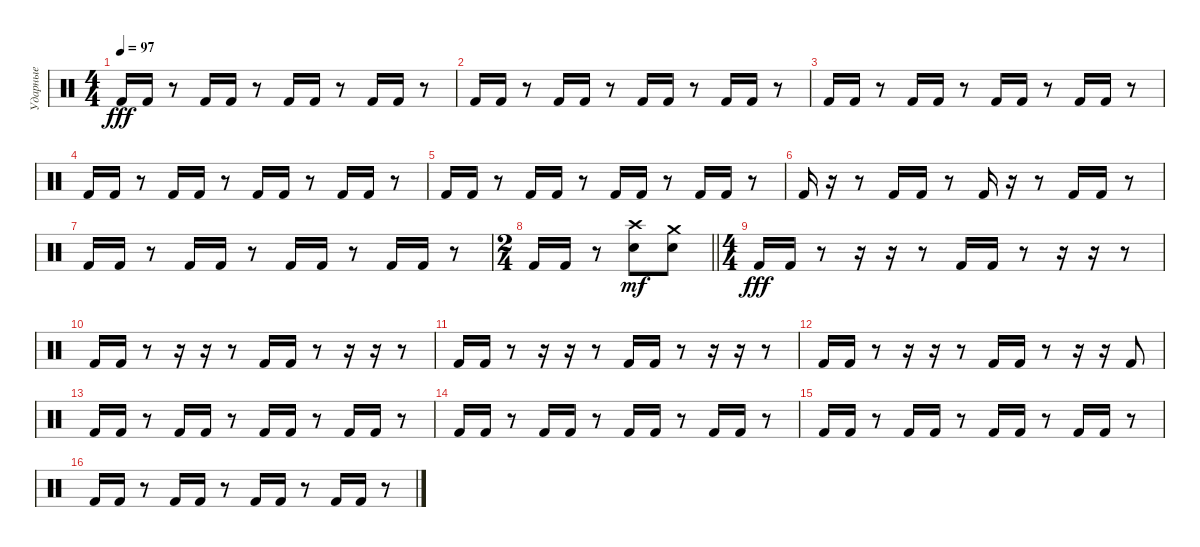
\track ("Ударные" "Ударные") {instrument percussion}
\staff {score}
\articulation defaults
\ts (4 4)
\tempo 97
\clef neutral
\ks c "Kick (hit) 2".16{dy fff} "Kick (hit) 2".16
r.8 "Kick (hit) 2".16 "Kick (hit) 2".16 r.8 "Kick (hit) 2".16 "Kick (hit) 2".16 r.8 "Kick (hit) 2".16 "Kick (hit) 2".16 r.8 |
"Kick (hit) 2".16 "Kick (hit) 2".16 r.8 "Kick (hit) 2".16 "Kick (hit) 2".16 r.8 "Kick (hit) 2".16 "Kick (hit) 2".16 r.8 "Kick (hit) 2".16 "Kick (hit) 2".16 r.8 |
"Kick (hit) 2".16 "Kick (hit) 2".16 r.8 "Kick (hit) 2".16 "Kick (hit) 2".16 r.8 "Kick (hit) 2".16 "Kick (hit) 2".16 r.8 "Kick (hit) 2".16 "Kick (hit) 2".16 r.8 |
"Kick (hit) 2".16 "Kick (hit) 2".16 r.8 "Kick (hit) 2".16 "Kick (hit) 2".16 r.8 "Kick (hit) 2".16 "Kick (hit) 2".16 r.8 "Kick (hit) 2".16 "Kick (hit) 2".16 r.8 |
"Kick (hit) 2".16 "Kick (hit) 2".16 r.8 "Kick (hit) 2".16 "Kick (hit) 2".16 r.8 "Kick (hit) 2".16 "Kick (hit) 2".16 r.8 "Kick (hit) 2".16 "Kick (hit) 2".16 r.8 |
"Kick (hit) 2".16 r.16 r.8 "Kick (hit) 2".16 "Kick (hit) 2".16 r.8 "Kick (hit) 2".16 r.16 r.8 "Kick (hit) 2".16 "Kick (hit) 2".16 r.8 |
"Kick (hit) 2".16 "Kick (hit) 2".16 r.8 "Kick (hit) 2".16 "Kick (hit) 2".16 r.8 "Kick (hit) 2".16 "Kick (hit) 2".16 r.8 "Kick (hit) 2".16 "Kick (hit) 2".16 r.8 |
\ts (2 4)
\barLineRight lightlight "Kick (hit) 2".16 "Kick (hit) 2".16
r.8 ("Electric Snare (hit)" "Crash high (hit)").8{dy mf} ("Electric Snare (hit)" "Crash medium (hit)").8 |
\ts (4 4)
"Kick (hit) 2".16{dy fff} "Kick (hit) 2".16 r.8 r.16 r.16 r.8 "Kick (hit) 2".16 "Kick (hit) 2".16 r.8 r.16 r.16 r.8 |
"Kick (hit) 2".16 "Kick (hit) 2".16 r.8 r.16 r.16 r.8 "Kick (hit) 2".16 "Kick (hit) 2".16 r.8 r.16 r.16 r.8 |
"Kick (hit) 2".16 "Kick (hit) 2".16 r.8 r.16 r.16 r.8 "Kick (hit) 2".16 "Kick (hit) 2".16 r.8 r.16 r.16 r.8 |
"Kick (hit) 2".16 "Kick (hit) 2".16 r.8 r.16 r.16 r.8 "Kick (hit) 2".16 "Kick (hit) 2".16 r.8 r.16 r.16 "Kick (hit) 2".8 |
"Kick (hit) 2".16 "Kick (hit) 2".16 r.8 "Kick (hit) 2".16 "Kick (hit) 2".16 r.8 "Kick (hit) 2".16 "Kick (hit) 2".16 r.8 "Kick (hit) 2".16 "Kick (hit) 2".16 r.8 |
"Kick (hit) 2".16 "Kick (hit) 2".16 r.8 "Kick (hit) 2".16 "Kick (hit) 2".16 r.8 "Kick (hit) 2".16 "Kick (hit) 2".16 r.8 "Kick (hit) 2".16 "Kick (hit) 2".16 r.8 |
"Kick (hit) 2".16 "Kick (hit) 2".16 r.8 "Kick (hit) 2".16 "Kick (hit) 2".16 r.8 "Kick (hit) 2".16 "Kick (hit) 2".16 r.8 "Kick (hit) 2".16 "Kick (hit) 2".16 r.8 |
"Kick (hit) 2".16 "Kick (hit) 2".16 r.8 "Kick (hit) 2".16 "Kick (hit) 2".16 r.8 "Kick (hit) 2".16 "Kick (hit) 2".16 r.8 "Kick (hit) 2".16 "Kick (hit) 2".16 r.8
